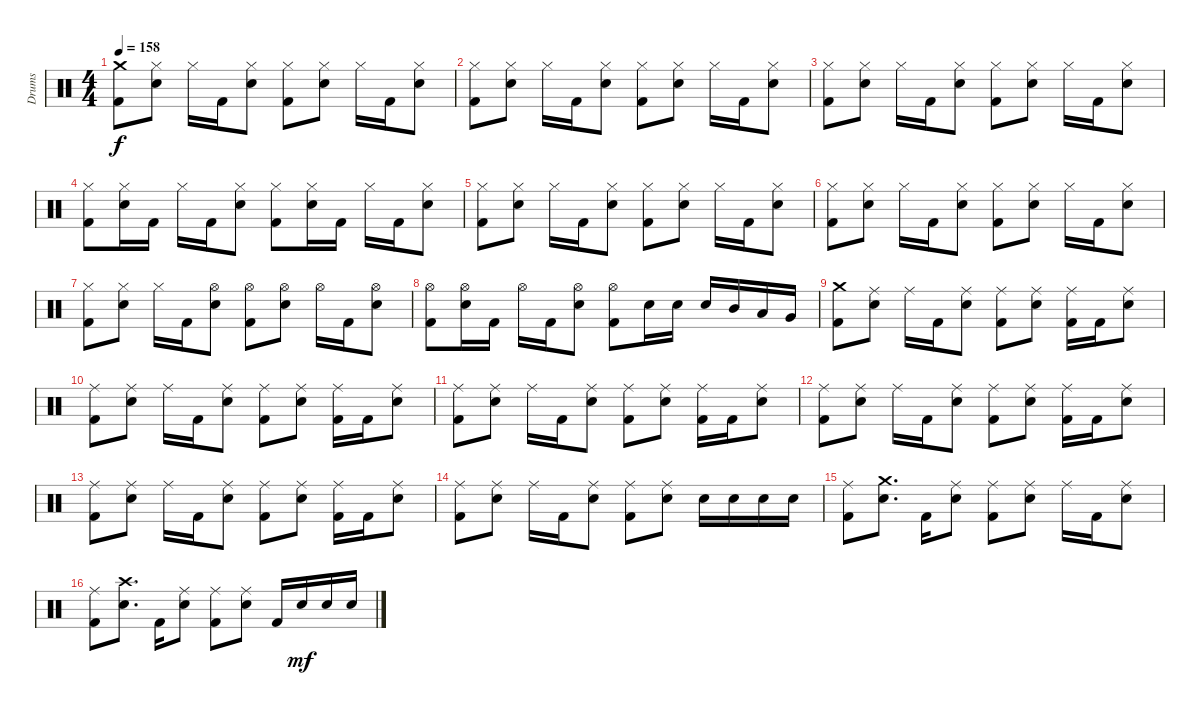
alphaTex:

\track ("Drums" "Drums") {instrument percussion}
\staff {score}
\articulation defaults
\ts (4 4)
\tempo 158
\clef neutral
\ks c
("Crash medium (hit)" "Kick (hit) 2").8{dy f} ("Hi-Hat (closed)" "Electric Snare (hit)").8 "Hi-Hat (closed)".16 "Kick (hit) 2".16 ("Hi-Hat (closed)" "Electric Snare (hit)").8 ("Hi-Hat (closed)" "Kick (hit) 2").8 ("Hi-Hat (closed)" "Electric Snare (hit)").8 "Hi-Hat (closed)".16 "Kick (hit) 2".16 ("Hi-Hat (closed)" "Electric Snare (hit)").8 |
("Hi-Hat (closed)" "Kick (hit) 2").8 ("Hi-Hat (closed)" "Electric Snare (hit)").8 "Hi-Hat (closed)".16 "Kick (hit) 2".16 ("Hi-Hat (closed)" "Electric Snare (hit)").8 ("Hi-Hat (closed)" "Kick (hit) 2").8 ("Hi-Hat (closed)" "Electric Snare (hit)").8 "Hi-Hat (closed)".16 "Kick (hit) 2".16 ("Hi-Hat (closed)" "Electric Snare (hit)").8 |
("Hi-Hat (closed)" "Kick (hit) 2").8 ("Hi-Hat (closed)" "Electric Snare (hit)").8 "Hi-Hat (closed)".16 "Kick (hit) 2".16 ("Hi-Hat (closed)" "Electric Snare (hit)").8 ("Hi-Hat (closed)" "Kick (hit) 2").8 ("Hi-Hat (closed)" "Electric Snare (hit)").8 "Hi-Hat (closed)".16 "Kick (hit) 2".16 ("Hi-Hat (closed)" "Electric Snare (hit)").8 |
("Hi-Hat (closed)" "Kick (hit) 2").8 ("Hi-Hat (closed)" "Electric Snare (hit)").16 "Kick (hit) 2".16 "Hi-Hat (closed)".16 "Kick (hit) 2".16 ("Hi-Hat (closed)" "Electric Snare (hit)").8 ("Hi-Hat (closed)" "Kick (hit) 2").8 ("Hi-Hat (closed)" "Electric Snare (hit)").16 "Kick (hit) 2".16 "Hi-Hat (closed)".16 "Kick (hit) 2".16 ("Hi-Hat (closed)" "Electric Snare (hit)").8 |
("Hi-Hat (closed)" "Kick (hit) 2").8 ("Hi-Hat (closed)" "Electric Snare (hit)").8 "Hi-Hat (closed)".16 "Kick (hit) 2".16 ("Hi-Hat (closed)" "Electric Snare (hit)").8 ("Hi-Hat (closed)" "Kick (hit) 2").8 ("Hi-Hat (closed)" "Electric Snare (hit)").8 "Hi-Hat (closed)".16 "Kick (hit) 2".16 ("Hi-Hat (closed)" "Electric Snare (hit)").8 |
("Hi-Hat (closed)" "Kick (hit) 2").8 ("Hi-Hat (closed)" "Electric Snare (hit)").8 "Hi-Hat (closed)".16 "Kick (hit) 2".16 ("Hi-Hat (closed)" "Electric Snare (hit)").8 ("Hi-Hat (closed)" "Kick (hit) 2").8 ("Hi-Hat (closed)" "Electric Snare (hit)").8 "Hi-Hat (closed)".16 "Kick (hit) 2".16 ("Hi-Hat (closed)" "Electric Snare (hit)").8 |
("Hi-Hat (closed)" "Kick (hit) 2").8 ("Hi-Hat (closed)" "Electric Snare (hit)").8 "Hi-Hat (closed)".16 "Kick (hit) 2".16 ("Hi-Hat (open)" "Electric Snare (hit)").8 ("Hi-Hat (open)" "Kick (hit) 2").8 ("Hi-Hat (open)" "Electric Snare (hit)").8 "Hi-Hat (open)".16 "Kick (hit) 2".16 ("Hi-Hat (open)" "Electric Snare (hit)").8 |
("Hi-Hat (open)" "Kick (hit) 2").8 ("Hi-Hat (open)" "Electric Snare (hit)").16 "Kick (hit) 2".16 "Hi-Hat (open)".16 "Kick (hit) 2".16 ("Hi-Hat (open)" "Electric Snare (hit)").8 ("Hi-Hat (open)" "Kick (hit) 2").8 "Electric Snare (hit)".16 "Electric Snare (hit)".16 "Electric Snare (hit)".16 "Mid Tom (hit)".16 "Low Tom (hit)".16 "Very Low Tom (hit)".16 |
("Crash medium (hit)" "Kick (hit) 2").8 ("Ride (middle)" "Electric Snare (hit)").8 "Ride (middle)".16 "Kick (hit) 2".16 ("Ride (middle)" "Electric Snare (hit)").8 ("Ride (middle)" "Kick (hit) 2").8 ("Ride (middle)" "Electric Snare (hit)").8 ("Ride (middle)" "Kick (hit) 2").16 "Kick (hit) 2".16 ("Ride (middle)" "Electric Snare (hit)").8 |
("Ride (middle)" "Kick (hit) 2").8 ("Ride (middle)" "Electric Snare (hit)").8 "Ride (middle)".16 "Kick (hit) 2".16 ("Ride (middle)" "Electric Snare (hit)").8 ("Ride (middle)" "Kick (hit) 2").8 ("Ride (middle)" "Electric Snare (hit)").8 ("Ride (middle)" "Kick (hit) 2").16 "Kick (hit) 2".16 ("Ride (middle)" "Electric Snare (hit)").8 |
("Ride (middle)" "Kick (hit) 2").8 ("Ride (middle)" "Electric Snare (hit)").8 "Ride (middle)".16 "Kick (hit) 2".16 ("Ride (middle)" "Electric Snare (hit)").8 ("Ride (middle)" "Kick (hit) 2").8 ("Ride (middle)" "Electric Snare (hit)").8 ("Ride (middle)" "Kick (hit) 2").16 "Kick (hit) 2".16 ("Ride (middle)" "Electric Snare (hit)").8 |
("Ride (middle)" "Kick (hit) 2").8 ("Ride (middle)" "Electric Snare (hit)").8 "Ride (middle)".16 "Kick (hit) 2".16 ("Ride (middle)" "Electric Snare (hit)").8 ("Ride (middle)" "Kick (hit) 2").8 ("Ride (middle)" "Electric Snare (hit)").8 ("Ride (middle)" "Kick (hit) 2").16 "Kick (hit) 2".16 ("Ride (middle)" "Electric Snare (hit)").8 |
("Ride (middle)" "Kick (hit) 2").8 ("Ride (middle)" "Electric Snare (hit)").8 "Ride (middle)".16 "Kick (hit) 2".16 ("Ride (middle)" "Electric Snare (hit)").8 ("Ride (middle)" "Kick (hit) 2").8 ("Ride (middle)" "Electric Snare (hit)").8 ("Ride (middle)" "Kick (hit) 2").16 "Kick (hit) 2".16 ("Ride (middle)" "Electric Snare (hit)").8 |
("Ride (middle)" "Kick (hit) 2").8 ("Ride (middle)" "Electric Snare (hit)").8 "Ride (middle)".16 "Kick (hit) 2".16 ("Ride (middle)" "Electric Snare (hit)").8 ("Ride (middle)" "Kick (hit) 2").8 ("Ride (middle)" "Electric Snare (hit)").8 "Electric Snare (hit)".16 "Electric Snare (hit)".16 "Electric Snare (hit)".16 "Electric Snare (hit)".16 |
("Ride (middle)" "Kick (hit) 2").8 ("Crash medium (hit)" "Electric Snare (hit)").8{d} "Kick (hit) 2".16 ("Ride (middle)" "Electric Snare (hit)").8 ("Ride (middle)" "Kick (hit) 2").8 ("Ride (middle)" "Electric Snare (hit)").8 "Ride (middle)".16 "Kick (hit) 2".16 ("Ride (middle)" "Electric Snare (hit)").8 |
("Ride (middle)" "Kick (hit) 2").8 ("Crash high (hit)" "Electric Snare (hit)").8{d} "Kick (hit) 2".16 ("Ride (middle)" "Electric Snare (hit)").8 ("Ride (middle)" "Kick (hit) 2").8 ("Ride (middle)" "Electric Snare (hit)").8 "Kick (hit) 2".16 "Electric Snare (hit)".16{dy mf} "Electric Snare (hit)".16 "Electric Snare (hit)".16
